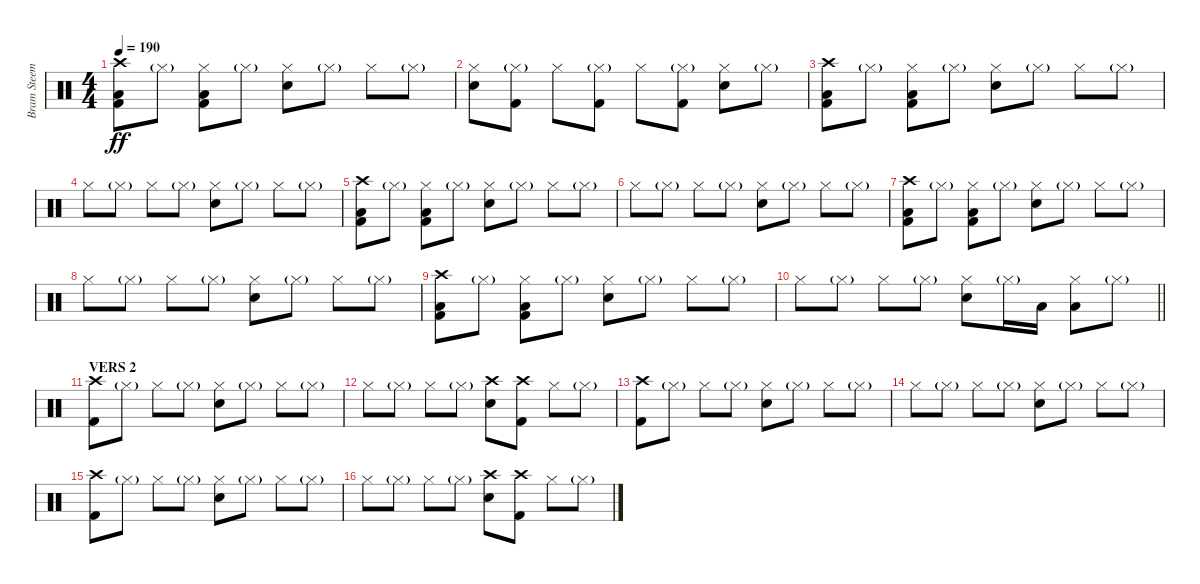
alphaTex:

\track ("Bram Steemans" "Bram Steem") {instrument percussion}
\staff {score}
\articulation defaults
\ts (4 4)
\tempo 190
\clef neutral
\ks c
("Crash high (hit)" "Low Floor Tom (hit)" "Kick (hit) 2").8{dy ff} "Hi-Hat (closed)"{g}.8 ("Hi-Hat (closed)" "Low Floor Tom (hit)" "Kick (hit) 2").8 "Hi-Hat (closed)"{g}.8 ("Hi-Hat (closed)" "Snare (hit) 2").8 "Hi-Hat (closed)"{g}.8 "Hi-Hat (closed)".8 "Hi-Hat (closed)"{g}.8 |
("Hi-Hat (closed)" "Snare (hit) 2").8 ("Hi-Hat (closed)"{g} "Kick (hit) 2").8 "Hi-Hat (closed)".8 ("Hi-Hat (closed)"{g} "Kick (hit) 2").8 "Hi-Hat (closed)".8 ("Hi-Hat (closed)"{g} "Kick (hit) 2").8 ("Hi-Hat (closed)" "Snare (hit) 2").8 "Hi-Hat (closed)"{g}.8 |
("Crash high (hit)" "Low Floor Tom (hit)" "Kick (hit) 2").8 "Hi-Hat (closed)"{g}.8 ("Hi-Hat (closed)" "Low Floor Tom (hit)" "Kick (hit) 2").8 "Hi-Hat (closed)"{g}.8 ("Hi-Hat (closed)" "Snare (hit) 2").8 "Hi-Hat (closed)"{g}.8 "Hi-Hat (closed)".8 "Hi-Hat (closed)"{g}.8 |
"Hi-Hat (closed)".8 "Hi-Hat (closed)"{g}.8 "Hi-Hat (closed)".8 "Hi-Hat (closed)"{g}.8 ("Hi-Hat (closed)" "Snare (hit) 2").8 "Hi-Hat (closed)"{g}.8 "Hi-Hat (closed)".8 "Hi-Hat (closed)"{g}.8 |
("Crash high (hit)" "Low Floor Tom (hit)" "Kick (hit) 2").8 "Hi-Hat (closed)"{g}.8 ("Hi-Hat (closed)" "Low Floor Tom (hit)" "Kick (hit) 2").8 "Hi-Hat (closed)"{g}.8 ("Hi-Hat (closed)" "Snare (hit) 2").8 "Hi-Hat (closed)"{g}.8 "Hi-Hat (closed)".8 "Hi-Hat (closed)"{g}.8 |
"Hi-Hat (closed)".8 "Hi-Hat (closed)"{g}.8 "Hi-Hat (closed)".8 "Hi-Hat (closed)"{g}.8 ("Hi-Hat (closed)" "Snare (hit) 2").8 "Hi-Hat (closed)"{g}.8 "Hi-Hat (closed)".8 "Hi-Hat (closed)"{g}.8 |
("Crash high (hit)" "Low Floor Tom (hit)" "Kick (hit) 2").8 "Hi-Hat (closed)"{g}.8 ("Hi-Hat (closed)" "Low Floor Tom (hit)" "Kick (hit) 2").8 "Hi-Hat (closed)"{g}.8 ("Hi-Hat (closed)" "Snare (hit) 2").8 "Hi-Hat (closed)"{g}.8 "Hi-Hat (closed)".8 "Hi-Hat (closed)"{g}.8 |
"Hi-Hat (closed)".8 "Hi-Hat (closed)"{g}.8 "Hi-Hat (closed)".8 "Hi-Hat (closed)"{g}.8 ("Hi-Hat (closed)" "Snare (hit) 2").8 "Hi-Hat (closed)"{g}.8 "Hi-Hat (closed)".8 "Hi-Hat (closed)"{g}.8 |
("Crash high (hit)" "Low Floor Tom (hit)" "Kick (hit) 2").8 "Hi-Hat (closed)"{g}.8 ("Hi-Hat (closed)" "Low Floor Tom (hit)" "Kick (hit) 2").8 "Hi-Hat (closed)"{g}.8 ("Hi-Hat (closed)" "Snare (hit) 2").8 "Hi-Hat (closed)"{g}.8 "Hi-Hat (closed)".8 "Hi-Hat (closed)"{g}.8 |
\barLineRight lightlight "Hi-Hat (closed)".8 "Hi-Hat (closed)"{g}.8 "Hi-Hat (closed)".8 "Hi-Hat (closed)"{g}.8
("Hi-Hat (closed)" "Snare (hit) 2").8 "Hi-Hat (closed)"{g}.16 "Low Floor Tom (hit)".16 ("Hi-Hat (closed)" "Low Tom (hit)").8 "Hi-Hat (closed)"{g}.8 |
\section ("" "VERS 2")
("Crash high (hit)" "Kick (hit) 2").8 "Hi-Hat (closed)"{g}.8 "Hi-Hat (closed)".8 "Hi-Hat (closed)"{g}.8 ("Hi-Hat (closed)" "Snare (hit) 2").8 "Hi-Hat (closed)"{g}.8 "Hi-Hat (closed)".8 "Hi-Hat (closed)"{g}.8 |
"Hi-Hat (closed)".8 "Hi-Hat (closed)"{g}.8 "Hi-Hat (closed)".8 "Hi-Hat (closed)"{g}.8 ("Crash high (hit)" "Snare (hit) 2").8 ("Crash high (hit)" "Kick (hit) 2").8 "Hi-Hat (closed)".8 "Hi-Hat (closed)"{g}.8 |
("Crash high (hit)" "Kick (hit) 2").8 "Hi-Hat (closed)"{g}.8 "Hi-Hat (closed)".8 "Hi-Hat (closed)"{g}.8 ("Hi-Hat (closed)" "Snare (hit) 2").8 "Hi-Hat (closed)"{g}.8 "Hi-Hat (closed)".8 "Hi-Hat (closed)"{g}.8 |
"Hi-Hat (closed)".8 "Hi-Hat (closed)"{g}.8 "Hi-Hat (closed)".8 "Hi-Hat (closed)"{g}.8 ("Hi-Hat (closed)" "Snare (hit) 2").8 "Hi-Hat (closed)"{g}.8 "Hi-Hat (closed)".8 "Hi-Hat (closed)"{g}.8 |
("Crash high (hit)" "Kick (hit) 2").8 "Hi-Hat (closed)"{g}.8 "Hi-Hat (closed)".8 "Hi-Hat (closed)"{g}.8 ("Hi-Hat (closed)" "Snare (hit) 2").8 "Hi-Hat (closed)"{g}.8 "Hi-Hat (closed)".8 "Hi-Hat (closed)"{g}.8 |
"Hi-Hat (closed)".8 "Hi-Hat (closed)"{g}.8 "Hi-Hat (closed)".8 "Hi-Hat (closed)"{g}.8 ("Crash high (hit)" "Snare (hit) 2").8 ("Crash high (hit)" "Kick (hit) 2").8 "Hi-Hat (closed)".8 "Hi-Hat (closed)"{g}.8
